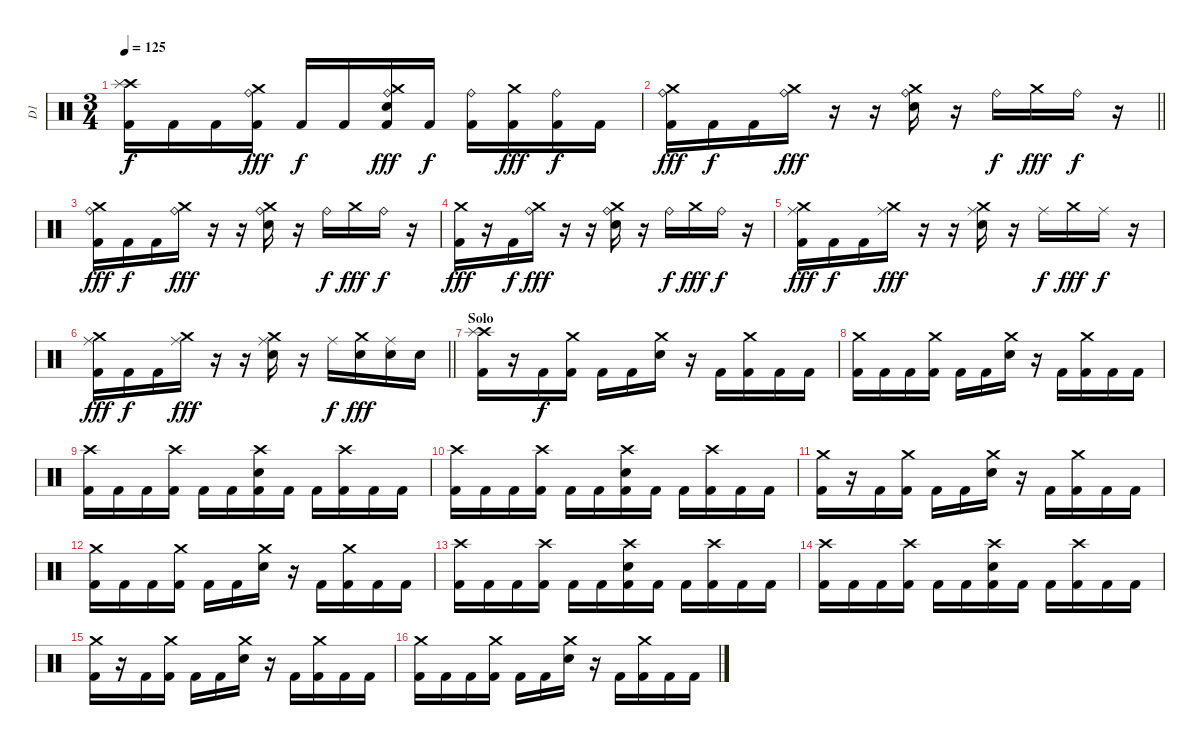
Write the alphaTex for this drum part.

\track ("D1" "D1") {instrument percussion}
\staff {score}
\articulation defaults
\ts (3 4)
\tempo 125
\clef neutral
\ks c
("Crash high (hit)" "Splash (hit)" "Kick (hit) 2").16{dy f} "Kick (hit) 2".16 "Kick (hit) 2".16 ("Crash medium (hit)" "Ride (bell)" "Kick (hit) 2").16{dy fff} "Kick (hit) 2".16{dy f} "Kick (hit) 2".16 ("Crash medium (hit)" "Ride (bell)" "Snare (hit) 2" "Kick (hit) 2").16{dy fff} "Kick (hit) 2".16{dy f} ("Ride (bell)" "Kick (hit) 2").16 ("Crash medium (hit)" "Kick (hit) 2").16{dy fff} ("Ride (bell)" "Kick (hit) 2").16{dy f} "Kick (hit) 2".16 |
\barLineRight lightlight
("Crash medium (hit)" "Ride (bell)" "Kick (hit) 2").16{dy fff} "Kick (hit) 2".16{dy f} "Kick (hit) 2".16 ("Crash medium (hit)" "Ride (bell)").16{dy fff} r.16 r.16 ("Crash medium (hit)" "Ride (bell)" "Snare (hit) 2").16 r.16 "Ride (bell)".16{dy f} "Crash medium (hit)".16{dy fff} "Ride (bell)".16{dy f} r.16 |
\section ("" "")
("Crash medium (hit)" "Ride (bell)" "Kick (hit) 2").16{dy fff} "Kick (hit) 2".16{dy f} "Kick (hit) 2".16 ("Crash medium (hit)" "Ride (bell)").16{dy fff} r.16 r.16 ("Crash medium (hit)" "Ride (bell)" "Snare (hit) 2").16 r.16 "Ride (bell)".16{dy f} "Crash medium (hit)".16{dy fff} "Ride (bell)".16{dy f} r.16 |
("Crash medium (hit)" "Kick (hit) 2").16{dy fff} r.16 "Kick (hit) 2".16{dy f} ("Crash medium (hit)" "Ride (bell)").16{dy fff} r.16 r.16 ("Crash medium (hit)" "Ride (bell)" "Snare (hit) 2").16 r.16 "Ride (bell)".16{dy f} "Crash medium (hit)".16{dy fff} "Ride (bell)".16{dy f} r.16 |
("Crash medium (hit)" "Ride (middle)" "Kick (hit) 2").16{dy fff} "Kick (hit) 2".16{dy f} "Kick (hit) 2".16 ("Crash medium (hit)" "Ride (middle)").16{dy fff} r.16 r.16 ("Crash medium (hit)" "Ride (middle)" "Snare (hit) 2").16 r.16 "Ride (middle)".16{dy f} "Crash medium (hit)".16{dy fff} "Ride (middle)".16{dy f} r.16 |
\barLineRight lightlight
("Crash medium (hit)" "Ride (middle)" "Kick (hit) 2").16{dy fff} "Kick (hit) 2".16{dy f} "Kick (hit) 2".16 ("Crash medium (hit)" "Ride (middle)").16{dy fff} r.16 r.16 ("Crash medium (hit)" "Ride (middle)" "Snare (hit) 2").16 r.16 "Ride (middle)".16{dy f} ("Crash medium (hit)" "Snare (hit) 2").16{dy fff} ("Ride (middle)" "Snare (hit) 2").16 "Snare (hit) 2".16 |
\section ("" "Solo")
("Crash high (hit)" "Splash (hit)" "Kick (hit) 2").16 r.16 "Kick (hit) 2".16{dy f} ("Crash medium (hit)" "Kick (hit) 2").16 "Kick (hit) 2".16 "Kick (hit) 2".16 ("Crash medium (hit)" "Snare (hit) 2").16 r.16 "Kick (hit) 2".16 ("Crash medium (hit)" "Kick (hit) 2").16 "Kick (hit) 2".16 "Kick (hit) 2".16 |
("Crash medium (hit)" "Kick (hit) 2").16 "Kick (hit) 2".16 "Kick (hit) 2".16 ("Crash medium (hit)" "Kick (hit) 2").16 "Kick (hit) 2".16 "Kick (hit) 2".16 ("Crash medium (hit)" "Snare (hit) 2").16 r.16 "Kick (hit) 2".16 ("Crash medium (hit)" "Kick (hit) 2").16 "Kick (hit) 2".16 "Kick (hit) 2".16 |
("Crash high (hit)" "Kick (hit) 2").16 "Kick (hit) 2".16 "Kick (hit) 2".16 ("Crash high (hit)" "Kick (hit) 2").16 "Kick (hit) 2".16 "Kick (hit) 2".16 ("Crash high (hit)" "Snare (hit) 2" "Kick (hit) 2").16 "Kick (hit) 2".16 "Kick (hit) 2".16 ("Crash high (hit)" "Kick (hit) 2").16 "Kick (hit) 2".16 "Kick (hit) 2".16 |
("Crash high (hit)" "Kick (hit) 2").16 "Kick (hit) 2".16 "Kick (hit) 2".16 ("Crash high (hit)" "Kick (hit) 2").16 "Kick (hit) 2".16 "Kick (hit) 2".16 ("Crash high (hit)" "Snare (hit) 2" "Kick (hit) 2").16 "Kick (hit) 2".16 "Kick (hit) 2".16 ("Crash high (hit)" "Kick (hit) 2").16 "Kick (hit) 2".16 "Kick (hit) 2".16 |
("Crash medium (hit)" "Kick (hit) 2").16 r.16 "Kick (hit) 2".16 ("Crash medium (hit)" "Kick (hit) 2").16 "Kick (hit) 2".16 "Kick (hit) 2".16 ("Crash medium (hit)" "Snare (hit) 2").16 r.16 "Kick (hit) 2".16 ("Crash medium (hit)" "Kick (hit) 2").16 "Kick (hit) 2".16 "Kick (hit) 2".16 |
("Crash medium (hit)" "Kick (hit) 2").16 "Kick (hit) 2".16 "Kick (hit) 2".16 ("Crash medium (hit)" "Kick (hit) 2").16 "Kick (hit) 2".16 "Kick (hit) 2".16 ("Crash medium (hit)" "Snare (hit) 2").16 r.16 "Kick (hit) 2".16 ("Crash medium (hit)" "Kick (hit) 2").16 "Kick (hit) 2".16 "Kick (hit) 2".16 |
("Crash high (hit)" "Kick (hit) 2").16 "Kick (hit) 2".16 "Kick (hit) 2".16 ("Crash high (hit)" "Kick (hit) 2").16 "Kick (hit) 2".16 "Kick (hit) 2".16 ("Crash high (hit)" "Snare (hit) 2" "Kick (hit) 2").16 "Kick (hit) 2".16 "Kick (hit) 2".16 ("Crash high (hit)" "Kick (hit) 2").16 "Kick (hit) 2".16 "Kick (hit) 2".16 |
("Crash high (hit)" "Kick (hit) 2").16 "Kick (hit) 2".16 "Kick (hit) 2".16 ("Crash high (hit)" "Kick (hit) 2").16 "Kick (hit) 2".16 "Kick (hit) 2".16 ("Crash high (hit)" "Snare (hit) 2" "Kick (hit) 2").16 "Kick (hit) 2".16 "Kick (hit) 2".16 ("Crash high (hit)" "Kick (hit) 2").16 "Kick (hit) 2".16 "Kick (hit) 2".16 |
("Crash medium (hit)" "Kick (hit) 2").16 r.16 "Kick (hit) 2".16 ("Crash medium (hit)" "Kick (hit) 2").16 "Kick (hit) 2".16 "Kick (hit) 2".16 ("Crash medium (hit)" "Snare (hit) 2").16 r.16 "Kick (hit) 2".16 ("Crash medium (hit)" "Kick (hit) 2").16 "Kick (hit) 2".16 "Kick (hit) 2".16 |
("Crash medium (hit)" "Kick (hit) 2").16 "Kick (hit) 2".16 "Kick (hit) 2".16 ("Crash medium (hit)" "Kick (hit) 2").16 "Kick (hit) 2".16 "Kick (hit) 2".16 ("Crash medium (hit)" "Snare (hit) 2").16 r.16 "Kick (hit) 2".16 ("Crash medium (hit)" "Kick (hit) 2").16 "Kick (hit) 2".16 "Kick (hit) 2".16
